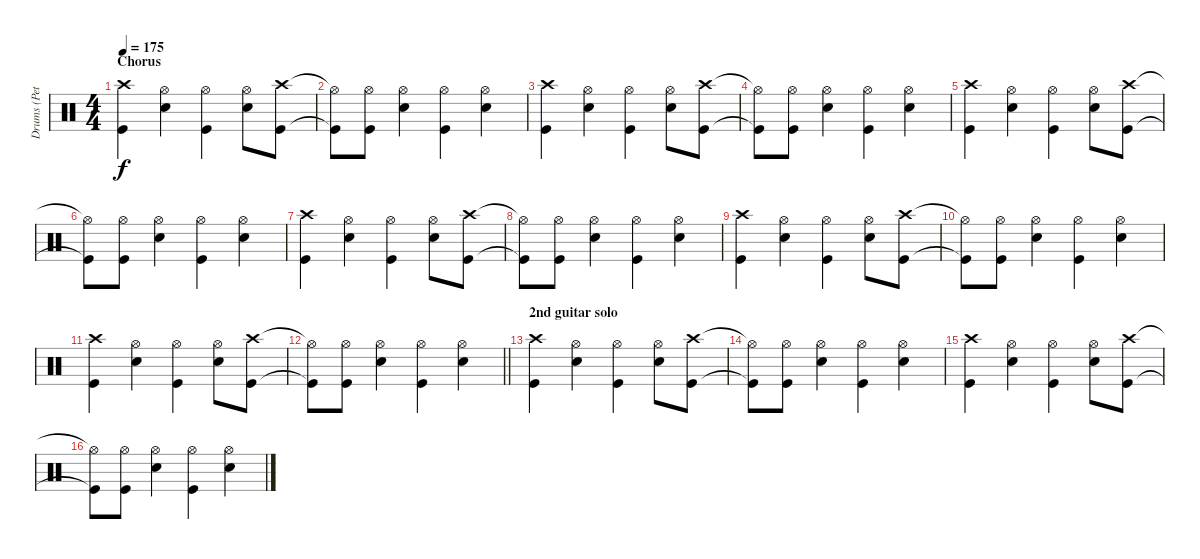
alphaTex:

\track ("Drums (Peter Jensen)" "Drums (Pet") {instrument percussion}
\staff {score}
\articulation defaults
\ts (4 4)
\section ("" "Chorus")
\tempo 175
\clef neutral
\ks c
("Crash high (hit)" "Kick (hit)").4{dy f} ("Hi-Hat (open)" "Snare (hit) 2").4 ("Hi-Hat (open)" "Kick (hit)").4 ("Hi-Hat (open)" "Snare (hit) 2").8 ("Crash high (hit)" "Kick (hit)").8 |
("Hi-Hat (open)"{t} "Kick (hit)"{t}).8 ("Hi-Hat (open)" "Kick (hit)").8 ("Hi-Hat (open)" "Snare (hit) 2").4 ("Hi-Hat (open)" "Kick (hit)").4 ("Hi-Hat (open)" "Snare (hit) 2").4 |
("Crash high (hit)" "Kick (hit)").4 ("Hi-Hat (open)" "Snare (hit) 2").4 ("Hi-Hat (open)" "Kick (hit)").4 ("Hi-Hat (open)" "Snare (hit) 2").8 ("Crash high (hit)" "Kick (hit)").8 |
("Hi-Hat (open)"{t} "Kick (hit)"{t}).8 ("Hi-Hat (open)" "Kick (hit)").8 ("Hi-Hat (open)" "Snare (hit) 2").4 ("Hi-Hat (open)" "Kick (hit)").4 ("Hi-Hat (open)" "Snare (hit) 2").4 |
("Crash high (hit)" "Kick (hit)").4 ("Hi-Hat (open)" "Snare (hit) 2").4 ("Hi-Hat (open)" "Kick (hit)").4 ("Hi-Hat (open)" "Snare (hit) 2").8 ("Crash high (hit)" "Kick (hit)").8 |
("Hi-Hat (open)"{t} "Kick (hit)"{t}).8 ("Hi-Hat (open)" "Kick (hit)").8 ("Hi-Hat (open)" "Snare (hit) 2").4 ("Hi-Hat (open)" "Kick (hit)").4 ("Hi-Hat (open)" "Snare (hit) 2").4 |
("Crash high (hit)" "Kick (hit)").4 ("Hi-Hat (open)" "Snare (hit) 2").4 ("Hi-Hat (open)" "Kick (hit)").4 ("Hi-Hat (open)" "Snare (hit) 2").8 ("Crash high (hit)" "Kick (hit)").8 |
("Hi-Hat (open)"{t} "Kick (hit)"{t}).8 ("Hi-Hat (open)" "Kick (hit)").8 ("Hi-Hat (open)" "Snare (hit) 2").4 ("Hi-Hat (open)" "Kick (hit)").4 ("Hi-Hat (open)" "Snare (hit) 2").4 |
("Crash high (hit)" "Kick (hit)").4 ("Hi-Hat (open)" "Snare (hit) 2").4 ("Hi-Hat (open)" "Kick (hit)").4 ("Hi-Hat (open)" "Snare (hit) 2").8 ("Crash high (hit)" "Kick (hit)").8 |
("Hi-Hat (open)"{t} "Kick (hit)"{t}).8 ("Hi-Hat (open)" "Kick (hit)").8 ("Hi-Hat (open)" "Snare (hit) 2").4 ("Hi-Hat (open)" "Kick (hit)").4 ("Hi-Hat (open)" "Snare (hit) 2").4 |
("Crash high (hit)" "Kick (hit)").4 ("Hi-Hat (open)" "Snare (hit) 2").4 ("Hi-Hat (open)" "Kick (hit)").4 ("Hi-Hat (open)" "Snare (hit) 2").8 ("Crash high (hit)" "Kick (hit)").8 |
\barLineRight lightlight
("Hi-Hat (open)"{t} "Kick (hit)"{t}).8 ("Hi-Hat (open)" "Kick (hit)").8 ("Hi-Hat (open)" "Snare (hit) 2").4 ("Hi-Hat (open)" "Kick (hit)").4 ("Hi-Hat (open)" "Snare (hit) 2").4 |
\section ("" "2nd guitar solo")
("Crash high (hit)" "Kick (hit)").4 ("Hi-Hat (open)" "Snare (hit) 2").4 ("Hi-Hat (open)" "Kick (hit)").4 ("Hi-Hat (open)" "Snare (hit) 2").8 ("Crash high (hit)" "Kick (hit)").8 |
("Hi-Hat (open)"{t} "Kick (hit)"{t}).8 ("Hi-Hat (open)" "Kick (hit)").8 ("Hi-Hat (open)" "Snare (hit) 2").4 ("Hi-Hat (open)" "Kick (hit)").4 ("Hi-Hat (open)" "Snare (hit) 2").4 |
("Crash high (hit)" "Kick (hit)").4 ("Hi-Hat (open)" "Snare (hit) 2").4 ("Hi-Hat (open)" "Kick (hit)").4 ("Hi-Hat (open)" "Snare (hit) 2").8 ("Crash high (hit)" "Kick (hit)").8 |
("Hi-Hat (open)"{t} "Kick (hit)"{t}).8 ("Hi-Hat (open)" "Kick (hit)").8 ("Hi-Hat (open)" "Snare (hit) 2").4 ("Hi-Hat (open)" "Kick (hit)").4 ("Hi-Hat (open)" "Snare (hit) 2").4
